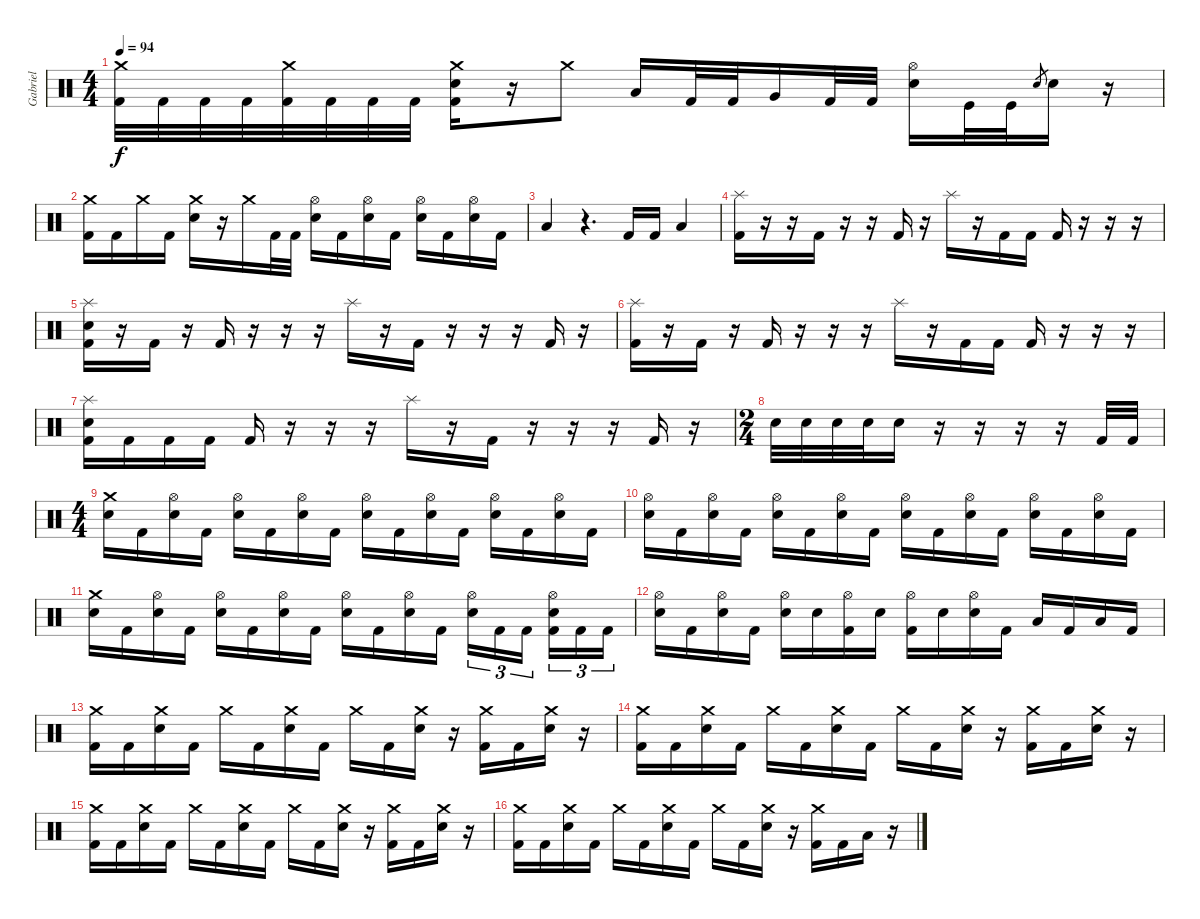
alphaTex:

\track ("Gabriel" "Gabriel") {instrument percussion}
\staff {score}
\articulation defaults
\ts (4 4)
\tempo 94
\clef neutral
\ks c
("Crash medium (hit)" "Kick (hit) 2").32{dy f} "Kick (hit) 2".32 "Kick (hit) 2".32 "Kick (hit) 2".32 ("Crash medium (hit)" "Kick (hit) 2").32 "Kick (hit) 2".32 "Kick (hit) 2".32 "Kick (hit) 2".32 ("Crash medium (hit)" "Electric Snare (hit)" "Kick (hit) 2").16 r.16 "Crash medium (hit)".8 "Low Tom (hit)".16 "Kick (hit) 2".32 "Kick (hit) 2".32 "Very Low Tom (hit)".16 "Kick (hit) 2".32 "Kick (hit) 2".32 ("Hi-Hat (open)" "Electric Snare (hit)").16 "Kick (hit)".32 "Kick (hit)".32 "Electric Snare (hit)".8{gr} "Electric Snare (hit)".16 r.16 |
("Crash medium (hit)" "Kick (hit) 2").16 "Kick (hit) 2".16 "Crash medium (hit)".16 "Kick (hit) 2".16 ("Crash medium (hit)" "Electric Snare (hit)").16 r.16 "Crash medium (hit)".16 "Kick (hit) 2".32 "Kick (hit) 2".32 ("Hi-Hat (open)" "Electric Snare (hit)").16 "Kick (hit) 2".16 ("Hi-Hat (open)" "Electric Snare (hit)").16 "Kick (hit) 2".16 ("Hi-Hat (open)" "Electric Snare (hit)").16 "Kick (hit) 2".16 ("Hi-Hat (open)" "Electric Snare (hit)").16 "Kick (hit) 2".16 |
"Low Tom (hit)".4 r.4{d} "Kick (hit) 2".16 "Kick (hit) 2".16 "Low Tom (hit)".4 |
("Splash (hit)" "Kick (hit) 2").16 r.16 r.16 "Kick (hit) 2".16 r.16 r.16 "Kick (hit) 2".16 r.16 "Splash (hit)".16 r.16 "Kick (hit) 2".16 "Kick (hit) 2".16 "Kick (hit) 2".16 r.16 r.16 r.16 |
("Splash (hit)" "Electric Snare (hit)" "Kick (hit) 2").16 r.16 "Kick (hit) 2".16 r.16 "Kick (hit) 2".16 r.16 r.16 r.16 "Splash (hit)".16 r.16 "Kick (hit) 2".16 r.16 r.16 r.16 "Kick (hit) 2".16 r.16 |
("Splash (hit)" "Kick (hit) 2").16 r.16 "Kick (hit) 2".16 r.16 "Kick (hit) 2".16 r.16 r.16 r.16 "Splash (hit)".16 r.16 "Kick (hit) 2".16 "Kick (hit) 2".16 "Kick (hit) 2".16 r.16 r.16 r.16 |
("Splash (hit)" "Electric Snare (hit)" "Kick (hit) 2").16 "Kick (hit) 2".16 "Kick (hit) 2".16 "Kick (hit) 2".16 "Kick (hit) 2".16 r.16 r.16 r.16 "Splash (hit)".16 r.16 "Kick (hit) 2".16 r.16 r.16 r.16 "Kick (hit) 2".16 r.16 |
\ts (2 4)
"Electric Snare (hit)".32 "Electric Snare (hit)".32 "Electric Snare (hit)".32 "Electric Snare (hit)".32 "Electric Snare (hit)".16 r.16 r.16 r.16 r.16 "Kick (hit) 2".32 "Kick (hit) 2".32 |
\ts (4 4)
("Crash medium (hit)" "Electric Snare (hit)").16 "Kick (hit) 2".16 ("Hi-Hat (open)" "Electric Snare (hit)").16 "Kick (hit) 2".16 ("Hi-Hat (open)" "Electric Snare (hit)").16 "Kick (hit) 2".16 ("Hi-Hat (open)" "Electric Snare (hit)").16 "Kick (hit) 2".16 ("Hi-Hat (open)" "Electric Snare (hit)").16 "Kick (hit) 2".16 ("Hi-Hat (open)" "Electric Snare (hit)").16 "Kick (hit) 2".16 ("Hi-Hat (open)" "Electric Snare (hit)").16 "Kick (hit) 2".16 ("Hi-Hat (open)" "Electric Snare (hit)").16 "Kick (hit) 2".16 |
("Hi-Hat (open)" "Electric Snare (hit)").16 "Kick (hit) 2".16 ("Hi-Hat (open)" "Electric Snare (hit)").16 "Kick (hit) 2".16 ("Hi-Hat (open)" "Electric Snare (hit)").16 "Kick (hit) 2".16 ("Hi-Hat (open)" "Electric Snare (hit)").16 "Kick (hit) 2".16 ("Hi-Hat (open)" "Electric Snare (hit)").16 "Kick (hit) 2".16 ("Hi-Hat (open)" "Electric Snare (hit)").16 "Kick (hit) 2".16 ("Hi-Hat (open)" "Electric Snare (hit)").16 "Kick (hit) 2".16 ("Hi-Hat (open)" "Electric Snare (hit)").16 "Kick (hit) 2".16 |
("Crash medium (hit)" "Electric Snare (hit)").16 "Kick (hit) 2".16 ("Hi-Hat (open)" "Electric Snare (hit)").16 "Kick (hit) 2".16 ("Hi-Hat (open)" "Electric Snare (hit)").16 "Kick (hit) 2".16 ("Hi-Hat (open)" "Electric Snare (hit)").16 "Kick (hit) 2".16 ("Hi-Hat (open)" "Electric Snare (hit)").16 "Kick (hit) 2".16 ("Hi-Hat (open)" "Electric Snare (hit)").16 "Kick (hit) 2".16 ("Hi-Hat (open)" "Electric Snare (hit)").16{tu (3 2)} "Kick (hit) 2".16{tu (3 2)} "Kick (hit) 2".16{tu (3 2) beam splitsecondary} ("Hi-Hat (open)" "Electric Snare (hit)" "Kick (hit) 2").16{tu (3 2)} "Kick (hit) 2".16{tu (3 2)} "Kick (hit) 2".16{tu (3 2)} |
("Hi-Hat (open)" "Electric Snare (hit)").16 "Kick (hit) 2".16 ("Hi-Hat (open)" "Electric Snare (hit)").16 "Kick (hit) 2".16 ("Hi-Hat (open)" "Electric Snare (hit)").16 "Electric Snare (hit)".16 ("Hi-Hat (open)" "Kick (hit) 2").16 "Electric Snare (hit)".16 ("Hi-Hat (open)" "Kick (hit) 2").16 "Electric Snare (hit)".16 ("Hi-Hat (open)" "Electric Snare (hit)").16 "Kick (hit) 2".16 "Low Tom (hit)".16 "Kick (hit) 2".16 "Low Tom (hit)".16 "Kick (hit) 2".16 |
("Crash medium (hit)" "Kick (hit) 2").16 "Kick (hit) 2".16 ("Crash medium (hit)" "Electric Snare (hit)").16 "Kick (hit) 2".16 "Crash medium (hit)".16 "Kick (hit) 2".16 ("Crash medium (hit)" "Electric Snare (hit)").16 "Kick (hit) 2".16 "Crash medium (hit)".16 "Kick (hit) 2".16 ("Crash medium (hit)" "Electric Snare (hit)").16 r.16 ("Crash medium (hit)" "Kick (hit) 2").16 "Kick (hit) 2".16 ("Crash medium (hit)" "Electric Snare (hit)").16 r.16 |
("Crash medium (hit)" "Kick (hit) 2").16 "Kick (hit) 2".16 ("Crash medium (hit)" "Electric Snare (hit)").16 "Kick (hit) 2".16 "Crash medium (hit)".16 "Kick (hit) 2".16 ("Crash medium (hit)" "Electric Snare (hit)").16 "Kick (hit) 2".16 "Crash medium (hit)".16 "Kick (hit) 2".16 ("Crash medium (hit)" "Electric Snare (hit)").16 r.16 ("Crash medium (hit)" "Kick (hit) 2").16 "Kick (hit) 2".16 ("Crash medium (hit)" "Electric Snare (hit)").16 r.16 |
("Crash medium (hit)" "Kick (hit) 2").16 "Kick (hit) 2".16 ("Crash medium (hit)" "Electric Snare (hit)").16 "Kick (hit) 2".16 "Crash medium (hit)".16 "Kick (hit) 2".16 ("Crash medium (hit)" "Electric Snare (hit)").16 "Kick (hit) 2".16 "Crash medium (hit)".16 "Kick (hit) 2".16 ("Crash medium (hit)" "Electric Snare (hit)").16 r.16 ("Crash medium (hit)" "Kick (hit) 2").16 "Kick (hit) 2".16 ("Crash medium (hit)" "Electric Snare (hit)").16 r.16 |
("Crash medium (hit)" "Kick (hit) 2").16 "Kick (hit) 2".16 ("Crash medium (hit)" "Electric Snare (hit)").16 "Kick (hit) 2".16 "Crash medium (hit)".16 "Kick (hit) 2".16 ("Crash medium (hit)" "Electric Snare (hit)").16 "Kick (hit) 2".16 "Crash medium (hit)".16 "Kick (hit) 2".16 ("Crash medium (hit)" "Electric Snare (hit)").16 r.16 ("Crash medium (hit)" "Kick (hit) 2").16 "Kick (hit) 2".16 "Low Tom (hit)".16 r.16
